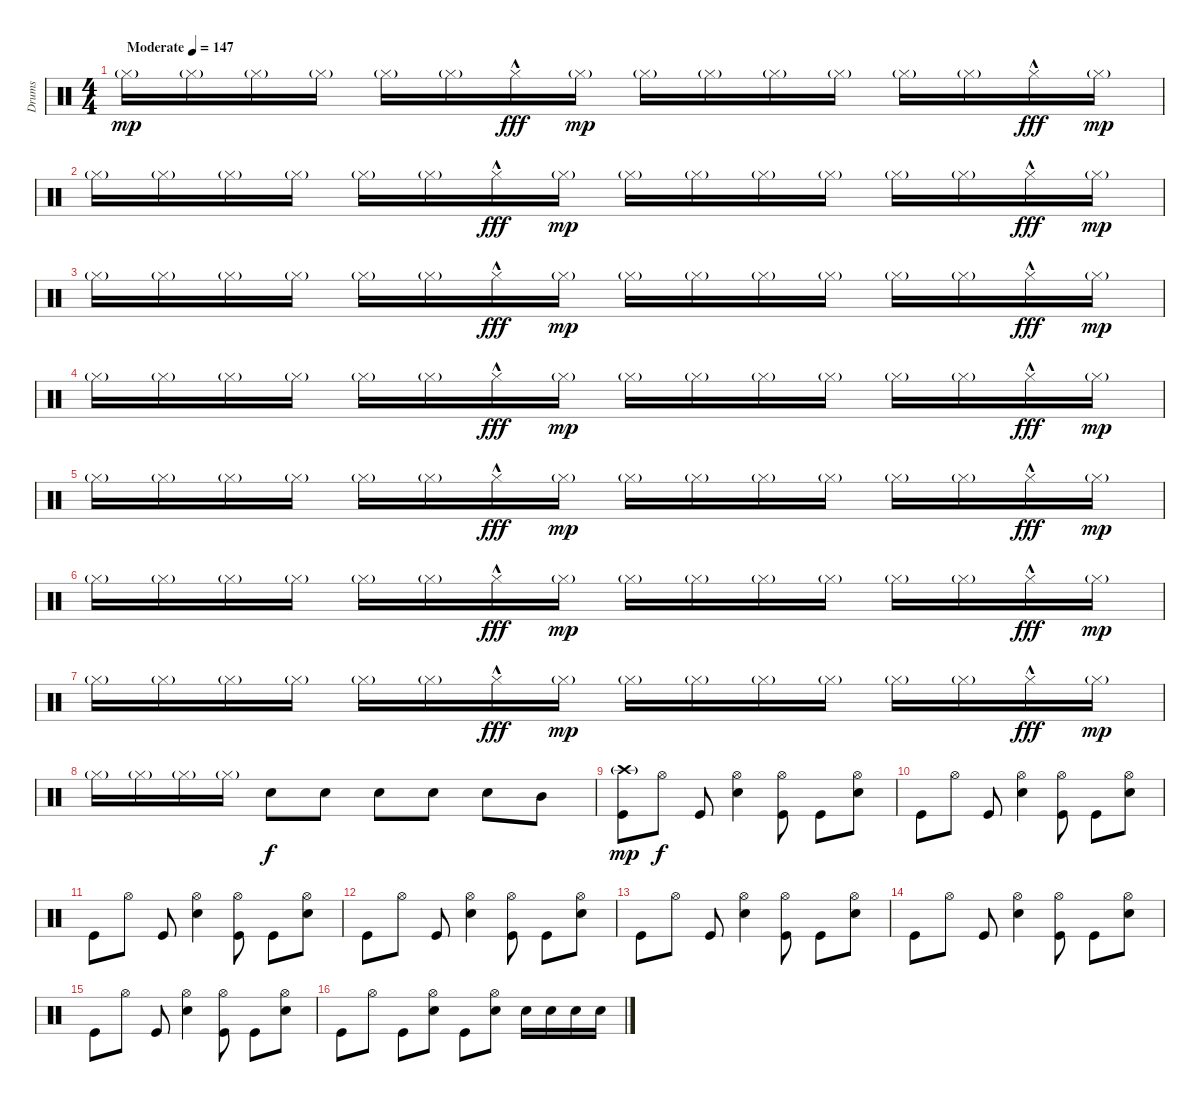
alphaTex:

\track ("Drums" "Drums") {instrument percussion}
\staff {score}
\articulation defaults
\ts (4 4)
\tempo (147 "Moderate")
\clef neutral
\ks c "Hi-Hat (closed)"{g}.16{dy mp} "Hi-Hat (closed)"{g}.16 "Hi-Hat (closed)"{g}.16 "Hi-Hat (closed)"{g}.16 "Hi-Hat (closed)"{g}.16 "Hi-Hat (closed)"{g}.16 "Hi-Hat (closed)"{hac}.16{dy fff} "Hi-Hat (closed)"{g}.16{dy mp} "Hi-Hat (closed)"{g}.16 "Hi-Hat (closed)"{g}.16 "Hi-Hat (closed)"{g}.16 "Hi-Hat (closed)"{g}.16 "Hi-Hat (closed)"{g}.16 "Hi-Hat (closed)"{g}.16 "Hi-Hat (closed)"{hac}.16{dy fff} "Hi-Hat (closed)"{g}.16{dy mp}
|
"Hi-Hat (closed)"{g}.16 "Hi-Hat (closed)"{g}.16 "Hi-Hat (closed)"{g}.16 "Hi-Hat (closed)"{g}.16 "Hi-Hat (closed)"{g}.16 "Hi-Hat (closed)"{g}.16 "Hi-Hat (closed)"{hac}.16{dy fff} "Hi-Hat (closed)"{g}.16{dy mp} "Hi-Hat (closed)"{g}.16 "Hi-Hat (closed)"{g}.16 "Hi-Hat (closed)"{g}.16 "Hi-Hat (closed)"{g}.16 "Hi-Hat (closed)"{g}.16 "Hi-Hat (closed)"{g}.16 "Hi-Hat (closed)"{hac}.16{dy fff} "Hi-Hat (closed)"{g}.16{dy mp} |
"Hi-Hat (closed)"{g}.16 "Hi-Hat (closed)"{g}.16 "Hi-Hat (closed)"{g}.16 "Hi-Hat (closed)"{g}.16 "Hi-Hat (closed)"{g}.16 "Hi-Hat (closed)"{g}.16 "Hi-Hat (closed)"{hac}.16{dy fff} "Hi-Hat (closed)"{g}.16{dy mp} "Hi-Hat (closed)"{g}.16 "Hi-Hat (closed)"{g}.16 "Hi-Hat (closed)"{g}.16 "Hi-Hat (closed)"{g}.16 "Hi-Hat (closed)"{g}.16 "Hi-Hat (closed)"{g}.16 "Hi-Hat (closed)"{hac}.16{dy fff} "Hi-Hat (closed)"{g}.16{dy mp} |
"Hi-Hat (closed)"{g}.16 "Hi-Hat (closed)"{g}.16 "Hi-Hat (closed)"{g}.16 "Hi-Hat (closed)"{g}.16 "Hi-Hat (closed)"{g}.16 "Hi-Hat (closed)"{g}.16 "Hi-Hat (closed)"{hac}.16{dy fff} "Hi-Hat (closed)"{g}.16{dy mp} "Hi-Hat (closed)"{g}.16 "Hi-Hat (closed)"{g}.16 "Hi-Hat (closed)"{g}.16 "Hi-Hat (closed)"{g}.16 "Hi-Hat (closed)"{g}.16 "Hi-Hat (closed)"{g}.16 "Hi-Hat (closed)"{hac}.16{dy fff} "Hi-Hat (closed)"{g}.16{dy mp} |
"Hi-Hat (closed)"{g}.16 "Hi-Hat (closed)"{g}.16 "Hi-Hat (closed)"{g}.16 "Hi-Hat (closed)"{g}.16 "Hi-Hat (closed)"{g}.16 "Hi-Hat (closed)"{g}.16 "Hi-Hat (closed)"{hac}.16{dy fff} "Hi-Hat (closed)"{g}.16{dy mp} "Hi-Hat (closed)"{g}.16 "Hi-Hat (closed)"{g}.16 "Hi-Hat (closed)"{g}.16 "Hi-Hat (closed)"{g}.16 "Hi-Hat (closed)"{g}.16 "Hi-Hat (closed)"{g}.16 "Hi-Hat (closed)"{hac}.16{dy fff} "Hi-Hat (closed)"{g}.16{dy mp} |
"Hi-Hat (closed)"{g}.16 "Hi-Hat (closed)"{g}.16 "Hi-Hat (closed)"{g}.16 "Hi-Hat (closed)"{g}.16 "Hi-Hat (closed)"{g}.16 "Hi-Hat (closed)"{g}.16 "Hi-Hat (closed)"{hac}.16{dy fff} "Hi-Hat (closed)"{g}.16{dy mp} "Hi-Hat (closed)"{g}.16 "Hi-Hat (closed)"{g}.16 "Hi-Hat (closed)"{g}.16 "Hi-Hat (closed)"{g}.16 "Hi-Hat (closed)"{g}.16 "Hi-Hat (closed)"{g}.16 "Hi-Hat (closed)"{hac}.16{dy fff} "Hi-Hat (closed)"{g}.16{dy mp} |
"Hi-Hat (closed)"{g}.16 "Hi-Hat (closed)"{g}.16 "Hi-Hat (closed)"{g}.16 "Hi-Hat (closed)"{g}.16 "Hi-Hat (closed)"{g}.16 "Hi-Hat (closed)"{g}.16 "Hi-Hat (closed)"{hac}.16{dy fff} "Hi-Hat (closed)"{g}.16{dy mp} "Hi-Hat (closed)"{g}.16 "Hi-Hat (closed)"{g}.16 "Hi-Hat (closed)"{g}.16 "Hi-Hat (closed)"{g}.16 "Hi-Hat (closed)"{g}.16 "Hi-Hat (closed)"{g}.16 "Hi-Hat (closed)"{hac}.16{dy fff} "Hi-Hat (closed)"{g}.16{dy mp} |
"Hi-Hat (closed)"{g}.16 "Hi-Hat (closed)"{g}.16 "Hi-Hat (closed)"{g}.16 "Hi-Hat (closed)"{g}.16 "Snare (hit) 2".8{dy f} "Snare (hit) 2".8 "Snare (hit) 2".8 "Snare (hit) 2".8 "Snare (hit) 2".8 "Mid Tom (hit)".8 |
("Crash high (hit)"{g} "Kick (hit)").8{dy mp} "Hi-Hat (open)".8{dy f} "Kick (hit)".8 ("Hi-Hat (open)" "Snare (hit) 2").4 ("Hi-Hat (open)" "Kick (hit)").8 "Kick (hit)".8 ("Hi-Hat (open)" "Snare (hit) 2").8 |
"Kick (hit)".8 "Hi-Hat (open)".8 "Kick (hit)".8 ("Hi-Hat (open)" "Snare (hit) 2").4 ("Hi-Hat (open)" "Kick (hit)").8 "Kick (hit)".8 ("Hi-Hat (open)" "Snare (hit) 2").8 |
"Kick (hit)".8 "Hi-Hat (open)".8 "Kick (hit)".8 ("Hi-Hat (open)" "Snare (hit) 2").4 ("Hi-Hat (open)" "Kick (hit)").8 "Kick (hit)".8 ("Hi-Hat (open)" "Snare (hit) 2").8 |
"Kick (hit)".8 "Hi-Hat (open)".8 "Kick (hit)".8 ("Hi-Hat (open)" "Snare (hit) 2").4 ("Hi-Hat (open)" "Kick (hit)").8 "Kick (hit)".8 ("Hi-Hat (open)" "Snare (hit) 2").8 |
"Kick (hit)".8 "Hi-Hat (open)".8 "Kick (hit)".8 ("Hi-Hat (open)" "Snare (hit) 2").4 ("Hi-Hat (open)" "Kick (hit)").8 "Kick (hit)".8 ("Hi-Hat (open)" "Snare (hit) 2").8 |
"Kick (hit)".8 "Hi-Hat (open)".8 "Kick (hit)".8 ("Hi-Hat (open)" "Snare (hit) 2").4 ("Hi-Hat (open)" "Kick (hit)").8 "Kick (hit)".8 ("Hi-Hat (open)" "Snare (hit) 2").8 |
"Kick (hit)".8 "Hi-Hat (open)".8 "Kick (hit)".8 ("Hi-Hat (open)" "Snare (hit) 2").4 ("Hi-Hat (open)" "Kick (hit)").8 "Kick (hit)".8 ("Hi-Hat (open)" "Snare (hit) 2").8 |
"Kick (hit)".8 "Hi-Hat (open)".8 "Kick (hit)".8 ("Hi-Hat (open)" "Snare (hit) 2").8 "Kick (hit)".8 ("Hi-Hat (open)" "Snare (hit) 2").8 "Snare (hit) 2".16 "Snare (hit) 2".16 "Snare (hit) 2".16 "Snare (hit) 2".16
